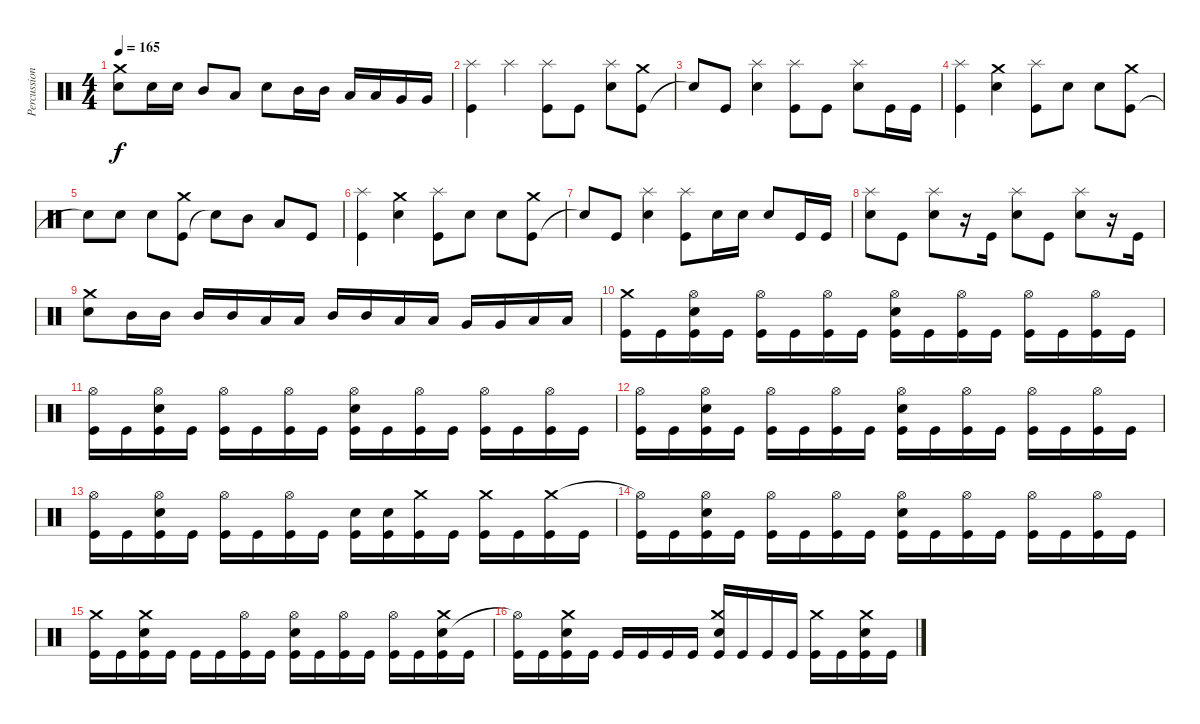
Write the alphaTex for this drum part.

\track ("Percussions" "Percussion") {instrument percussion}
\staff {score}
\articulation defaults
\ts (4 4)
\tempo 165
\clef neutral
\ks c
("Electric Snare (hit)" "Crash medium (hit)").8{dy f} "Electric Snare (hit)".16 "Electric Snare (hit)".16 "Mid Tom (hit)".8 "Low Tom (hit)".8 "Electric Snare (hit)".8 "Mid Tom (hit)".16 "Mid Tom (hit)".16 "Low Tom (hit)".16 "Low Tom (hit)".16 "Very Low Tom (hit)".16 "Very Low Tom (hit)".16 |
("Kick (hit)" "Splash (hit)").4 "Splash (hit)".4 ("Kick (hit)" "Splash (hit)").8 "Kick (hit)".8 ("Electric Snare (hit)" "Splash (hit)").8 ("Kick (hit)" "Crash medium (hit)").8 |
"Snare (hit)"{t}.8 "Kick (hit)".8 ("Electric Snare (hit)" "Splash (hit)").4 ("Kick (hit)" "Splash (hit)").8 "Kick (hit)".8 ("Electric Snare (hit)" "Splash (hit)").8 "Kick (hit)".16 "Kick (hit)".16 |
("Kick (hit)" "Splash (hit)").4 ("Electric Snare (hit)" "Crash medium (hit)").4 ("Kick (hit)" "Splash (hit)").8 "Electric Snare (hit)".8 "Electric Snare (hit)".8 ("Kick (hit)" "Crash medium (hit)").8 |
"Snare (hit)"{t}.8 "Electric Snare (hit)".8 "Electric Snare (hit)".8 ("Kick (hit)" "Crash medium (hit)").8 "Snare (hit)"{t}.8 "Mid Tom (hit)".8 "Low Tom (hit)".8 "Kick (hit)".8 |
("Kick (hit)" "Splash (hit)").4 ("Electric Snare (hit)" "Crash medium (hit)").4 ("Kick (hit)" "Splash (hit)").8 "Electric Snare (hit)".8 "Electric Snare (hit)".8 ("Kick (hit)" "Crash medium (hit)").8 |
"Snare (hit)"{t}.8 "Kick (hit)".8 ("Electric Snare (hit)" "Splash (hit)").4 ("Kick (hit)" "Splash (hit)").8 "Electric Snare (hit)".16 "Electric Snare (hit)".16 "Electric Snare (hit)".8 "Kick (hit)".16 "Kick (hit)".16 |
("Electric Snare (hit)" "Splash (hit)").8 "Kick (hit)".8 ("Electric Snare (hit)" "Splash (hit)").8 r.16 "Kick (hit)".16 ("Electric Snare (hit)" "Splash (hit)").8 "Kick (hit)".8 ("Electric Snare (hit)" "Splash (hit)").8 r.16 "Kick (hit)".16 |
("Electric Snare (hit)" "Crash medium (hit)").8 "Mid Tom (hit)".16 "Mid Tom (hit)".16 "Mid Tom (hit)".16 "Mid Tom (hit)".16 "Low Tom (hit)".16 "Low Tom (hit)".16 "Mid Tom (hit)".16 "Mid Tom (hit)".16 "Low Tom (hit)".16 "Low Tom (hit)".16 "Very Low Tom (hit)".16 "Very Low Tom (hit)".16 "Low Floor Tom (hit)".16 "Low Floor Tom (hit)".16 |
("Kick (hit)" "Crash medium (hit)").16 "Kick (hit)".16 ("Kick (hit)" "Electric Snare (hit)" "Hi-Hat (open)").16 "Kick (hit)".16 ("Kick (hit)" "Hi-Hat (open)").16 "Kick (hit)".16 ("Kick (hit)" "Hi-Hat (open)").16 "Kick (hit)".16 ("Kick (hit)" "Electric Snare (hit)" "Hi-Hat (open)").16 "Kick (hit)".16 ("Kick (hit)" "Hi-Hat (open)").16 "Kick (hit)".16 ("Kick (hit)" "Hi-Hat (open)").16 "Kick (hit)".16 ("Kick (hit)" "Hi-Hat (open)").16 "Kick (hit)".16 |
("Kick (hit)" "Hi-Hat (open)").16 "Kick (hit)".16 ("Kick (hit)" "Electric Snare (hit)" "Hi-Hat (open)").16 "Kick (hit)".16 ("Kick (hit)" "Hi-Hat (open)").16 "Kick (hit)".16 ("Kick (hit)" "Hi-Hat (open)").16 "Kick (hit)".16 ("Kick (hit)" "Electric Snare (hit)" "Hi-Hat (open)").16 "Kick (hit)".16 ("Kick (hit)" "Hi-Hat (open)").16 "Kick (hit)".16 ("Kick (hit)" "Hi-Hat (open)").16 "Kick (hit)".16 ("Kick (hit)" "Hi-Hat (open)").16 "Kick (hit)".16 |
("Kick (hit)" "Hi-Hat (open)").16 "Kick (hit)".16 ("Kick (hit)" "Electric Snare (hit)" "Hi-Hat (open)").16 "Kick (hit)".16 ("Kick (hit)" "Hi-Hat (open)").16 "Kick (hit)".16 ("Kick (hit)" "Hi-Hat (open)").16 "Kick (hit)".16 ("Kick (hit)" "Electric Snare (hit)" "Hi-Hat (open)").16 "Kick (hit)".16 ("Kick (hit)" "Hi-Hat (open)").16 "Kick (hit)".16 ("Kick (hit)" "Hi-Hat (open)").16 "Kick (hit)".16 ("Kick (hit)" "Hi-Hat (open)").16 "Kick (hit)".16 |
("Kick (hit)" "Hi-Hat (open)").16 "Kick (hit)".16 ("Kick (hit)" "Electric Snare (hit)" "Hi-Hat (open)").16 "Kick (hit)".16 ("Kick (hit)" "Hi-Hat (open)").16 "Kick (hit)".16 ("Kick (hit)" "Hi-Hat (open)").16 "Kick (hit)".16 ("Kick (hit)" "Electric Snare (hit)").16 ("Kick (hit)" "Electric Snare (hit)").16 ("Kick (hit)" "Crash medium (hit)").16 "Kick (hit)".16 ("Kick (hit)" "Crash medium (hit)").16 "Kick (hit)".16 ("Kick (hit)" "Crash medium (hit)").16 "Kick (hit)".16 |
("Kick (hit)" "Hi-Hat (open)"{t}).16 "Kick (hit)".16 ("Kick (hit)" "Electric Snare (hit)" "Hi-Hat (open)").16 "Kick (hit)".16 ("Kick (hit)" "Hi-Hat (open)").16 "Kick (hit)".16 ("Kick (hit)" "Hi-Hat (open)").16 "Kick (hit)".16 ("Kick (hit)" "Electric Snare (hit)" "Hi-Hat (open)").16 "Kick (hit)".16 ("Kick (hit)" "Hi-Hat (open)").16 "Kick (hit)".16 ("Kick (hit)" "Hi-Hat (open)").16 "Kick (hit)".16 ("Kick (hit)" "Hi-Hat (open)").16 "Kick (hit)".16 |
("Kick (hit)" "Crash medium (hit)").16 "Kick (hit)".16 ("Kick (hit)" "Electric Snare (hit)" "Crash medium (hit)").16 "Kick (hit)".16 "Kick (hit)".16 "Kick (hit)".16 ("Kick (hit)" "Hi-Hat (open)").16 "Kick (hit)".16 ("Kick (hit)" "Electric Snare (hit)" "Hi-Hat (open)").16 "Kick (hit)".16 ("Kick (hit)" "Hi-Hat (open)").16 "Kick (hit)".16 ("Kick (hit)" "Hi-Hat (open)").16 "Kick (hit)".16 ("Kick (hit)" "Electric Snare (hit)" "Crash medium (hit)").16 "Kick (hit)".16 |
("Kick (hit)" "Hi-Hat (open)"{t}).16 "Kick (hit)".16 ("Kick (hit)" "Electric Snare (hit)" "Crash medium (hit)").16 "Kick (hit)".16 "Kick (hit)".16 "Kick (hit)".16 "Kick (hit)".16 "Kick (hit)".16 ("Kick (hit)" "Electric Snare (hit)" "Crash medium (hit)").16 "Kick (hit)".16 "Kick (hit)".16 "Kick (hit)".16 ("Kick (hit)" "Crash medium (hit)").16 "Kick (hit)".16 ("Kick (hit)" "Electric Snare (hit)" "Crash medium (hit)").16 "Kick (hit)".16
